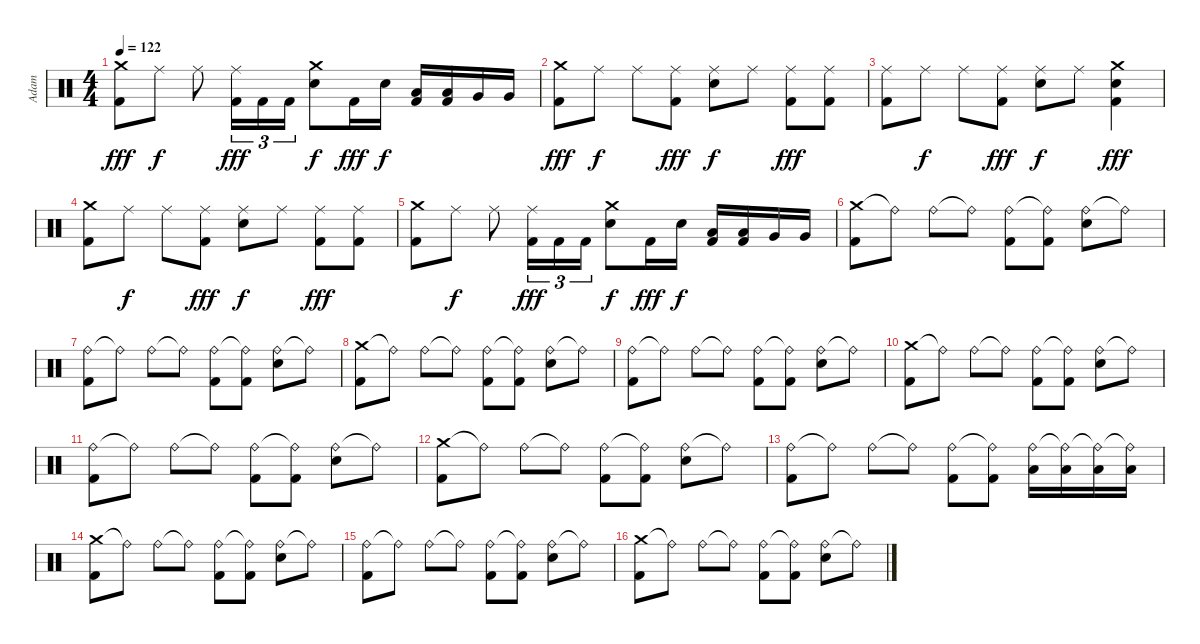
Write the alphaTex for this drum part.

\track ("Adam" "Adam") {instrument percussion}
\staff {score}
\articulation defaults
\ts (4 4)
\tempo 122
\clef neutral
\ks c
("Crash medium (hit)" "Kick (hit) 2").8{dy fff} "Ride (middle)".8{dy f} "Ride (middle)".8 ("Ride (middle)" "Kick (hit) 2").16{tu (3 2) dy fff} "Kick (hit) 2".16{tu (3 2)} "Kick (hit) 2".16{tu (3 2)} ("Crash medium (hit)" "Snare (hit) 2").8{dy f} "Kick (hit) 2".16{dy fff} "Snare (hit) 2".16{dy f} ("Low Tom (hit)" "Kick (hit) 2").16 ("Low Tom (hit)" "Kick (hit) 2").16 "Very Low Tom (hit)".16 "Very Low Tom (hit)".16 |
("Crash medium (hit)" "Kick (hit) 2").8{dy fff} "Ride (middle)".8{dy f} "Ride (middle)".8 ("Ride (middle)" "Kick (hit) 2").8{dy fff} ("Ride (middle)" "Snare (hit) 2").8{dy f} "Ride (middle)".8 ("Ride (middle)" "Kick (hit) 2").8{dy fff} ("Ride (middle)" "Kick (hit) 2").8 |
("Ride (middle)" "Kick (hit) 2").8 "Ride (middle)".8{dy f} "Ride (middle)".8 ("Ride (middle)" "Kick (hit) 2").8{dy fff} ("Ride (middle)" "Snare (hit) 2").8{dy f} "Ride (middle)".8 ("Crash medium (hit)" "Snare (hit) 2" "Kick (hit) 2").4{dy fff} |
("Crash medium (hit)" "Kick (hit) 2").8 "Ride (middle)".8{dy f} "Ride (middle)".8 ("Ride (middle)" "Kick (hit) 2").8{dy fff} ("Ride (middle)" "Snare (hit) 2").8{dy f} "Ride (middle)".8 ("Ride (middle)" "Kick (hit) 2").8{dy fff} ("Ride (middle)" "Kick (hit) 2").8 |
("Crash medium (hit)" "Kick (hit) 2").8 "Ride (middle)".8{dy f} "Ride (middle)".8 ("Ride (middle)" "Kick (hit) 2").16{tu (3 2) dy fff} "Kick (hit) 2".16{tu (3 2)} "Kick (hit) 2".16{tu (3 2)} ("Crash medium (hit)" "Snare (hit) 2").8{dy f} "Kick (hit) 2".16{dy fff} "Snare (hit) 2".16{dy f} ("Low Tom (hit)" "Kick (hit) 2").16 ("Low Tom (hit)" "Kick (hit) 2").16 "Very Low Tom (hit)".16 "Very Low Tom (hit)".16 |
("Crash medium (hit)" "Kick (hit) 2").8 "Ride (bell)"{t}.8 "Ride (bell)".8 "Ride (bell)"{t}.8 ("Ride (bell)" "Kick (hit) 2").8 ("Ride (bell)"{t} "Kick (hit) 2").8 ("Ride (bell)" "Snare (hit) 2").8 "Ride (bell)"{t}.8 |
("Ride (bell)" "Kick (hit) 2").8 "Ride (bell)"{t}.8 "Ride (bell)".8 "Ride (bell)"{t}.8 ("Ride (bell)" "Kick (hit) 2").8 ("Ride (bell)"{t} "Kick (hit) 2").8 ("Ride (bell)" "Snare (hit) 2").8 "Ride (bell)"{t}.8 |
("Crash medium (hit)" "Kick (hit) 2").8 "Ride (bell)"{t}.8 "Ride (bell)".8 "Ride (bell)"{t}.8 ("Ride (bell)" "Kick (hit) 2").8 ("Ride (bell)"{t} "Kick (hit) 2").8 ("Ride (bell)" "Snare (hit) 2").8 "Ride (bell)"{t}.8 |
("Ride (bell)" "Kick (hit) 2").8 "Ride (bell)"{t}.8 "Ride (bell)".8 "Ride (bell)"{t}.8 ("Ride (bell)" "Kick (hit) 2").8 ("Ride (bell)"{t} "Kick (hit) 2").8 ("Ride (bell)" "Snare (hit) 2").8 "Ride (bell)"{t}.8 |
("Crash medium (hit)" "Kick (hit) 2").8 "Ride (bell)"{t}.8 "Ride (bell)".8 "Ride (bell)"{t}.8 ("Ride (bell)" "Kick (hit) 2").8 ("Ride (bell)"{t} "Kick (hit) 2").8 ("Ride (bell)" "Snare (hit) 2").8 "Ride (bell)"{t}.8 |
("Ride (bell)" "Kick (hit) 2").8 "Ride (bell)"{t}.8 "Ride (bell)".8 "Ride (bell)"{t}.8 ("Ride (bell)" "Kick (hit) 2").8 ("Ride (bell)"{t} "Kick (hit) 2").8 ("Ride (bell)" "Snare (hit) 2").8 "Ride (bell)"{t}.8 |
("Crash medium (hit)" "Kick (hit) 2").8 "Ride (bell)"{t}.8 "Ride (bell)".8 "Ride (bell)"{t}.8 ("Ride (bell)" "Kick (hit) 2").8 ("Ride (bell)"{t} "Kick (hit) 2").8 ("Ride (bell)" "Snare (hit) 2").8 "Ride (bell)"{t}.8 |
("Ride (bell)" "Kick (hit) 2").8 "Ride (bell)"{t}.8 "Ride (bell)".8 "Ride (bell)"{t}.8 ("Ride (bell)" "Kick (hit) 2").8 ("Ride (bell)"{t} "Kick (hit) 2").8 ("Ride (bell)" "Low Tom (hit)").16 ("Ride (bell)"{t} "Low Tom (hit)").16 ("Ride (bell)"{t} "Low Tom (hit)").16 ("Ride (bell)"{t} "Low Tom (hit)").16 |
("Crash medium (hit)" "Kick (hit) 2").8 "Ride (bell)"{t}.8 "Ride (bell)".8 "Ride (bell)"{t}.8 ("Ride (bell)" "Kick (hit) 2").8 ("Ride (bell)"{t} "Kick (hit) 2").8 ("Ride (bell)" "Snare (hit) 2").8 "Ride (bell)"{t}.8 |
("Ride (bell)" "Kick (hit) 2").8 "Ride (bell)"{t}.8 "Ride (bell)".8 "Ride (bell)"{t}.8 ("Ride (bell)" "Kick (hit) 2").8 ("Ride (bell)"{t} "Kick (hit) 2").8 ("Ride (bell)" "Snare (hit) 2").8 "Ride (bell)"{t}.8 |
("Crash medium (hit)" "Kick (hit) 2").8 "Ride (bell)"{t}.8 "Ride (bell)".8 "Ride (bell)"{t}.8 ("Ride (bell)" "Kick (hit) 2").8 ("Ride (bell)"{t} "Kick (hit) 2").8 ("Ride (bell)" "Snare (hit) 2").8 "Ride (bell)"{t}.8
